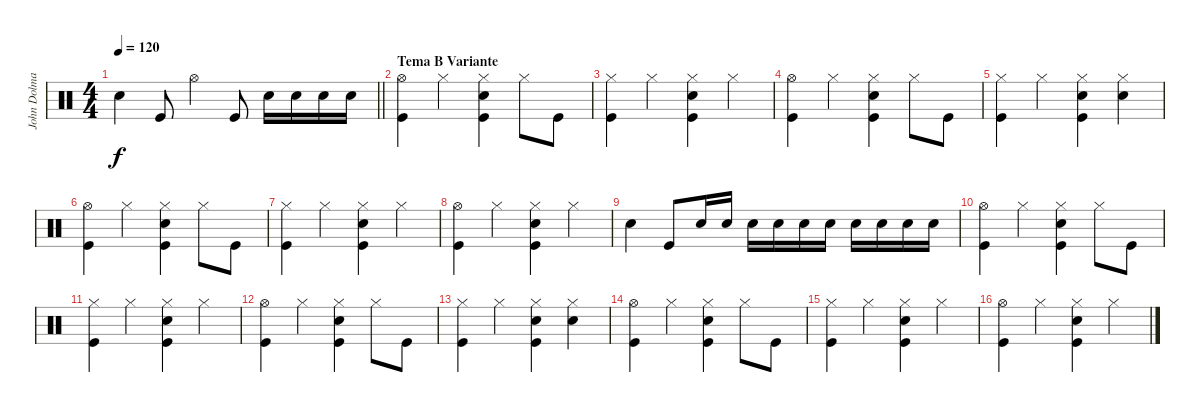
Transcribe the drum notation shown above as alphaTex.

\track ("John Dolmayan (Bateria)" "John Dolma") {instrument percussion}
\staff {score}
\articulation defaults
\ts (4 4)
\tempo 120
\clef neutral
\barLineRight lightlight
\ks c "Snare (hit) 2".4{dy f} "Kick (hit)".8 "Hi-Hat (open)".4 "Kick (hit)".8 "Snare (hit) 2".16 "Snare (hit) 2".16 "Snare (hit) 2".16 "Snare (hit) 2".16
|
\section ("" "Tema B Variante")
("Hi-Hat (open)" "Kick (hit)").4 "Hi-Hat (closed)".4 ("Hi-Hat (closed)" "Snare (hit) 2" "Kick (hit)").4 "Hi-Hat (closed)".8 "Kick (hit)".8 |
("Hi-Hat (closed)" "Kick (hit)").4 "Hi-Hat (closed)".4 ("Hi-Hat (closed)" "Snare (hit) 2" "Kick (hit)").4 "Hi-Hat (closed)".4 |
("Hi-Hat (open)" "Kick (hit)").4 "Hi-Hat (closed)".4 ("Hi-Hat (closed)" "Snare (hit) 2" "Kick (hit)").4 "Hi-Hat (closed)".8 "Kick (hit)".8 |
("Hi-Hat (closed)" "Kick (hit)").4 "Hi-Hat (closed)".4 ("Hi-Hat (closed)" "Snare (hit) 2" "Kick (hit)").4 ("Hi-Hat (closed)" "Snare (hit) 2").4 |
("Hi-Hat (open)" "Kick (hit)").4 "Hi-Hat (closed)".4 ("Hi-Hat (closed)" "Snare (hit) 2" "Kick (hit)").4 "Hi-Hat (closed)".8 "Kick (hit)".8 |
("Hi-Hat (closed)" "Kick (hit)").4 "Hi-Hat (closed)".4 ("Hi-Hat (closed)" "Snare (hit) 2" "Kick (hit)").4 "Hi-Hat (closed)".4 |
("Hi-Hat (open)" "Kick (hit)").4 "Hi-Hat (closed)".4 ("Hi-Hat (closed)" "Snare (hit) 2" "Kick (hit)").4 "Hi-Hat (closed)".4 |
"Snare (hit) 2".4 "Kick (hit)".8 "Snare (hit) 2".16 "Snare (hit) 2".16 "Snare (hit) 2".16 "Snare (hit) 2".16 "Snare (hit) 2".16 "Snare (hit) 2".16 "Snare (hit) 2".16 "Snare (hit) 2".16 "Snare (hit) 2".16 "Snare (hit) 2".16 |
("Hi-Hat (open)" "Kick (hit)").4 "Hi-Hat (closed)".4 ("Hi-Hat (closed)" "Snare (hit) 2" "Kick (hit)").4 "Hi-Hat (closed)".8 "Kick (hit)".8 |
("Hi-Hat (closed)" "Kick (hit)").4 "Hi-Hat (closed)".4 ("Hi-Hat (closed)" "Snare (hit) 2" "Kick (hit)").4 "Hi-Hat (closed)".4 |
("Hi-Hat (open)" "Kick (hit)").4 "Hi-Hat (closed)".4 ("Hi-Hat (closed)" "Snare (hit) 2" "Kick (hit)").4 "Hi-Hat (closed)".8 "Kick (hit)".8 |
("Hi-Hat (closed)" "Kick (hit)").4 "Hi-Hat (closed)".4 ("Hi-Hat (closed)" "Snare (hit) 2" "Kick (hit)").4 ("Hi-Hat (closed)" "Snare (hit) 2").4 |
("Hi-Hat (open)" "Kick (hit)").4 "Hi-Hat (closed)".4 ("Hi-Hat (closed)" "Snare (hit) 2" "Kick (hit)").4 "Hi-Hat (closed)".8 "Kick (hit)".8 |
("Hi-Hat (closed)" "Kick (hit)").4 "Hi-Hat (closed)".4 ("Hi-Hat (closed)" "Snare (hit) 2" "Kick (hit)").4 "Hi-Hat (closed)".4 |
("Hi-Hat (open)" "Kick (hit)").4 "Hi-Hat (closed)".4 ("Hi-Hat (closed)" "Snare (hit) 2" "Kick (hit)").4 "Hi-Hat (closed)".4
